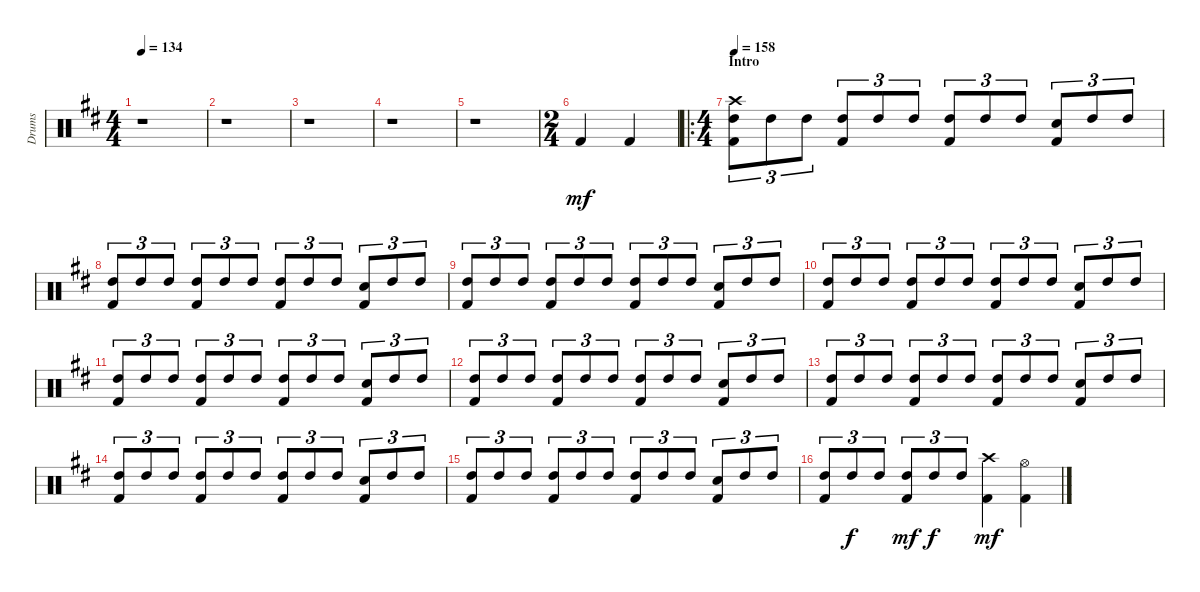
\track ("Drums" "Drums") {instrument percussion}
\staff {score}
\articulation defaults
\ts (4 4)
\tempo 134
\clef neutral
\ks d
r.1{dy mf} |
r.1 |
r.1 |
r.1 |
r.1 |
\ts (2 4)
"Kick (hit) 2".4 "Kick (hit) 2".4 |
\ro
\ts (4 4)
\section ("" "Intro")
\tempo 158
("Kick (hit) 2" "High Tom (hit)" "Crash high (hit)").8{tu (3 2)} "High Tom (hit)".8{tu (3 2)} "High Tom (hit)".8{tu (3 2)} ("Kick (hit) 2" "High Tom (hit)").8{tu (3 2)} "High Tom (hit)".8{tu (3 2)} "High Tom (hit)".8{tu (3 2)} ("Kick (hit) 2" "High Tom (hit)").8{tu (3 2)} "High Tom (hit)".8{tu (3 2)} "High Tom (hit)".8{tu (3 2)} ("Kick (hit) 2" "Snare (hit) 2").8{tu (3 2)} "High Tom (hit)".8{tu (3 2)} "High Tom (hit)".8{tu (3 2)} |
("Kick (hit) 2" "High Tom (hit)").8{tu (3 2)} "High Tom (hit)".8{tu (3 2)} "High Tom (hit)".8{tu (3 2)} ("Kick (hit) 2" "High Tom (hit)").8{tu (3 2)} "High Tom (hit)".8{tu (3 2)} "High Tom (hit)".8{tu (3 2)} ("Kick (hit) 2" "High Tom (hit)").8{tu (3 2)} "High Tom (hit)".8{tu (3 2)} "High Tom (hit)".8{tu (3 2)} ("Kick (hit) 2" "Snare (hit) 2").8{tu (3 2)} "High Tom (hit)".8{tu (3 2)} "High Tom (hit)".8{tu (3 2)} |
("Kick (hit) 2" "High Tom (hit)").8{tu (3 2)} "High Tom (hit)".8{tu (3 2)} "High Tom (hit)".8{tu (3 2)} ("Kick (hit) 2" "High Tom (hit)").8{tu (3 2)} "High Tom (hit)".8{tu (3 2)} "High Tom (hit)".8{tu (3 2)} ("Kick (hit) 2" "High Tom (hit)").8{tu (3 2)} "High Tom (hit)".8{tu (3 2)} "High Tom (hit)".8{tu (3 2)} ("Kick (hit) 2" "Snare (hit) 2").8{tu (3 2)} "High Tom (hit)".8{tu (3 2)} "High Tom (hit)".8{tu (3 2)} |
("Kick (hit) 2" "High Tom (hit)").8{tu (3 2)} "High Tom (hit)".8{tu (3 2)} "High Tom (hit)".8{tu (3 2)} ("Kick (hit) 2" "High Tom (hit)").8{tu (3 2)} "High Tom (hit)".8{tu (3 2)} "High Tom (hit)".8{tu (3 2)} ("Kick (hit) 2" "High Tom (hit)").8{tu (3 2)} "High Tom (hit)".8{tu (3 2)} "High Tom (hit)".8{tu (3 2)} ("Kick (hit) 2" "Snare (hit) 2").8{tu (3 2)} "High Tom (hit)".8{tu (3 2)} "High Tom (hit)".8{tu (3 2)} |
("Kick (hit) 2" "High Tom (hit)").8{tu (3 2)} "High Tom (hit)".8{tu (3 2)} "High Tom (hit)".8{tu (3 2)} ("Kick (hit) 2" "High Tom (hit)").8{tu (3 2)} "High Tom (hit)".8{tu (3 2)} "High Tom (hit)".8{tu (3 2)} ("Kick (hit) 2" "High Tom (hit)").8{tu (3 2)} "High Tom (hit)".8{tu (3 2)} "High Tom (hit)".8{tu (3 2)} ("Kick (hit) 2" "Snare (hit) 2").8{tu (3 2)} "High Tom (hit)".8{tu (3 2)} "High Tom (hit)".8{tu (3 2)} |
("Kick (hit) 2" "High Tom (hit)").8{tu (3 2)} "High Tom (hit)".8{tu (3 2)} "High Tom (hit)".8{tu (3 2)} ("Kick (hit) 2" "High Tom (hit)").8{tu (3 2)} "High Tom (hit)".8{tu (3 2)} "High Tom (hit)".8{tu (3 2)} ("Kick (hit) 2" "High Tom (hit)").8{tu (3 2)} "High Tom (hit)".8{tu (3 2)} "High Tom (hit)".8{tu (3 2)} ("Kick (hit) 2" "Snare (hit) 2").8{tu (3 2)} "High Tom (hit)".8{tu (3 2)} "High Tom (hit)".8{tu (3 2)} |
("Kick (hit) 2" "High Tom (hit)").8{tu (3 2)} "High Tom (hit)".8{tu (3 2)} "High Tom (hit)".8{tu (3 2)} ("Kick (hit) 2" "High Tom (hit)").8{tu (3 2)} "High Tom (hit)".8{tu (3 2)} "High Tom (hit)".8{tu (3 2)} ("Kick (hit) 2" "High Tom (hit)").8{tu (3 2)} "High Tom (hit)".8{tu (3 2)} "High Tom (hit)".8{tu (3 2)} ("Kick (hit) 2" "Snare (hit) 2").8{tu (3 2)} "High Tom (hit)".8{tu (3 2)} "High Tom (hit)".8{tu (3 2)} |
("Kick (hit) 2" "High Tom (hit)").8{tu (3 2)} "High Tom (hit)".8{tu (3 2)} "High Tom (hit)".8{tu (3 2)} ("Kick (hit) 2" "High Tom (hit)").8{tu (3 2)} "High Tom (hit)".8{tu (3 2)} "High Tom (hit)".8{tu (3 2)} ("Kick (hit) 2" "High Tom (hit)").8{tu (3 2)} "High Tom (hit)".8{tu (3 2)} "High Tom (hit)".8{tu (3 2)} ("Kick (hit) 2" "Snare (hit) 2").8{tu (3 2)} "High Tom (hit)".8{tu (3 2)} "High Tom (hit)".8{tu (3 2)} |
("Kick (hit) 2" "High Tom (hit)").8{tu (3 2)} "High Tom (hit)".8{tu (3 2)} "High Tom (hit)".8{tu (3 2)} ("Kick (hit) 2" "High Tom (hit)").8{tu (3 2)} "High Tom (hit)".8{tu (3 2)} "High Tom (hit)".8{tu (3 2)} ("Kick (hit) 2" "High Tom (hit)").8{tu (3 2)} "High Tom (hit)".8{tu (3 2)} "High Tom (hit)".8{tu (3 2)} ("Kick (hit) 2" "Snare (hit) 2").8{tu (3 2)} "High Tom (hit)".8{tu (3 2)} "High Tom (hit)".8{tu (3 2)} |
("Kick (hit) 2" "High Tom (hit)").8{tu (3 2)} "High Tom (hit)".8{tu (3 2) dy f} "High Tom (hit)".8{tu (3 2)} ("Kick (hit) 2" "High Tom (hit)").8{tu (3 2) dy mf} "High Tom (hit)".8{tu (3 2) dy f} "High Tom (hit)".8{tu (3 2)} ("Kick (hit) 2" "Crash high (hit)").4{dy mf} ("Kick (hit) 2" "Hi-Hat (open)").4
